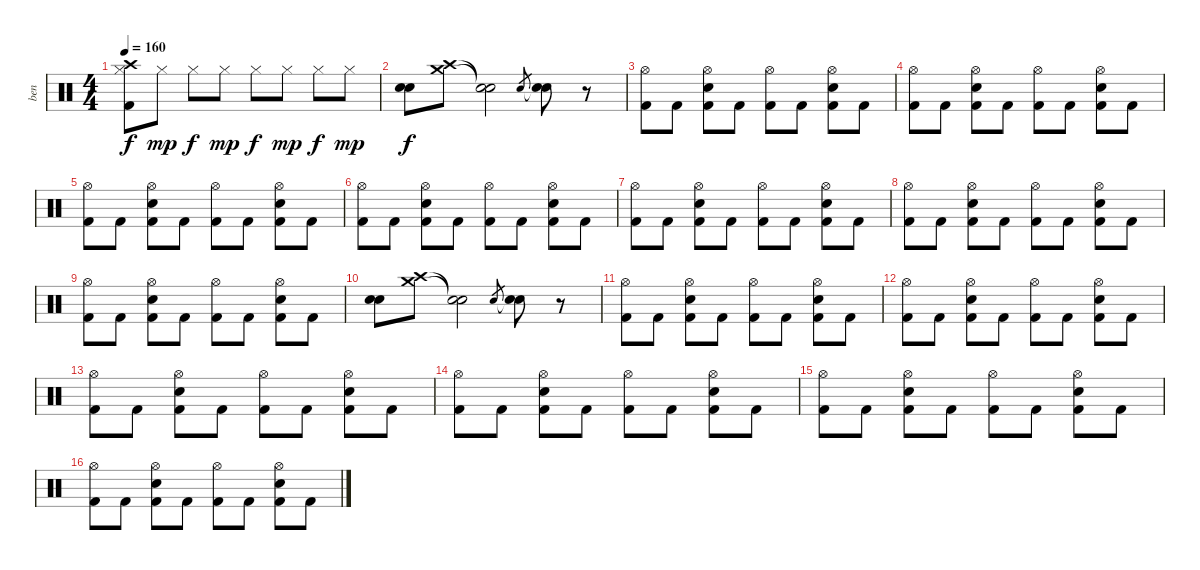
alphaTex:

\track ("ben" "ben") {instrument percussion}
\staff {score}
\articulation defaults
\ts (4 4)
\tempo 160
\clef neutral
\ks c
("Crash high (hit)" "Hi-Hat (closed)" "Kick (hit) 2").8{dy f} "Hi-Hat (closed)".8{dy mp} "Hi-Hat (closed)".8{dy f} "Hi-Hat (closed)".8{dy mp} "Hi-Hat (closed)".8{dy f} "Hi-Hat (closed)".8{dy mp} "Hi-Hat (closed)".8{dy f} "Hi-Hat (closed)".8{dy mp} |
("Electric Snare (hit)" "Snare (hit) 2").8{dy f} ("Crash medium (hit)" "Crash high (hit)").8 ("Snare (hit)"{t} "Snare (hit)"{t}).2 "Electric Snare (hit)".8{gr} ("Snare (hit)"{t} "Electric Snare (hit)").8 r.8 |
("Hi-Hat (open)" "Kick (hit) 2").8 "Kick (hit) 2".8 ("Hi-Hat (open)" "Electric Snare (hit)" "Kick (hit) 2").8 "Kick (hit) 2".8 ("Hi-Hat (open)" "Kick (hit) 2").8 "Kick (hit) 2".8 ("Hi-Hat (open)" "Electric Snare (hit)" "Kick (hit) 2").8 "Kick (hit) 2".8 |
("Hi-Hat (open)" "Kick (hit) 2").8 "Kick (hit) 2".8 ("Hi-Hat (open)" "Electric Snare (hit)" "Kick (hit) 2").8 "Kick (hit) 2".8 ("Hi-Hat (open)" "Kick (hit) 2").8 "Kick (hit) 2".8 ("Hi-Hat (open)" "Electric Snare (hit)" "Kick (hit) 2").8 "Kick (hit) 2".8 |
("Hi-Hat (open)" "Kick (hit) 2").8 "Kick (hit) 2".8 ("Hi-Hat (open)" "Electric Snare (hit)" "Kick (hit) 2").8 "Kick (hit) 2".8 ("Hi-Hat (open)" "Kick (hit) 2").8 "Kick (hit) 2".8 ("Hi-Hat (open)" "Electric Snare (hit)" "Kick (hit) 2").8 "Kick (hit) 2".8 |
("Hi-Hat (open)" "Kick (hit) 2").8 "Kick (hit) 2".8 ("Hi-Hat (open)" "Electric Snare (hit)" "Kick (hit) 2").8 "Kick (hit) 2".8 ("Hi-Hat (open)" "Kick (hit) 2").8 "Kick (hit) 2".8 ("Hi-Hat (open)" "Electric Snare (hit)" "Kick (hit) 2").8 "Kick (hit) 2".8 |
("Hi-Hat (open)" "Kick (hit) 2").8 "Kick (hit) 2".8 ("Hi-Hat (open)" "Electric Snare (hit)" "Kick (hit) 2").8 "Kick (hit) 2".8 ("Hi-Hat (open)" "Kick (hit) 2").8 "Kick (hit) 2".8 ("Hi-Hat (open)" "Electric Snare (hit)" "Kick (hit) 2").8 "Kick (hit) 2".8 |
("Hi-Hat (open)" "Kick (hit) 2").8 "Kick (hit) 2".8 ("Hi-Hat (open)" "Electric Snare (hit)" "Kick (hit) 2").8 "Kick (hit) 2".8 ("Hi-Hat (open)" "Kick (hit) 2").8 "Kick (hit) 2".8 ("Hi-Hat (open)" "Electric Snare (hit)" "Kick (hit) 2").8 "Kick (hit) 2".8 |
("Hi-Hat (open)" "Kick (hit) 2").8 "Kick (hit) 2".8 ("Hi-Hat (open)" "Electric Snare (hit)" "Kick (hit) 2").8 "Kick (hit) 2".8 ("Hi-Hat (open)" "Kick (hit) 2").8 "Kick (hit) 2".8 ("Hi-Hat (open)" "Electric Snare (hit)" "Kick (hit) 2").8 "Kick (hit) 2".8 |
("Electric Snare (hit)" "Snare (hit) 2").8 ("Crash medium (hit)" "Crash high (hit)").8 ("Snare (hit)"{t} "Snare (hit)"{t}).2 "Electric Snare (hit)".8{gr} ("Snare (hit)"{t} "Electric Snare (hit)").8 r.8 |
("Hi-Hat (open)" "Kick (hit) 2").8 "Kick (hit) 2".8 ("Hi-Hat (open)" "Electric Snare (hit)" "Kick (hit) 2").8 "Kick (hit) 2".8 ("Hi-Hat (open)" "Kick (hit) 2").8 "Kick (hit) 2".8 ("Hi-Hat (open)" "Electric Snare (hit)" "Kick (hit) 2").8 "Kick (hit) 2".8 |
("Hi-Hat (open)" "Kick (hit) 2").8 "Kick (hit) 2".8 ("Hi-Hat (open)" "Electric Snare (hit)" "Kick (hit) 2").8 "Kick (hit) 2".8 ("Hi-Hat (open)" "Kick (hit) 2").8 "Kick (hit) 2".8 ("Hi-Hat (open)" "Electric Snare (hit)" "Kick (hit) 2").8 "Kick (hit) 2".8 |
("Hi-Hat (open)" "Kick (hit) 2").8 "Kick (hit) 2".8 ("Hi-Hat (open)" "Electric Snare (hit)" "Kick (hit) 2").8 "Kick (hit) 2".8 ("Hi-Hat (open)" "Kick (hit) 2").8 "Kick (hit) 2".8 ("Hi-Hat (open)" "Electric Snare (hit)" "Kick (hit) 2").8 "Kick (hit) 2".8 |
("Hi-Hat (open)" "Kick (hit) 2").8 "Kick (hit) 2".8 ("Hi-Hat (open)" "Electric Snare (hit)" "Kick (hit) 2").8 "Kick (hit) 2".8 ("Hi-Hat (open)" "Kick (hit) 2").8 "Kick (hit) 2".8 ("Hi-Hat (open)" "Electric Snare (hit)" "Kick (hit) 2").8 "Kick (hit) 2".8 |
("Hi-Hat (open)" "Kick (hit) 2").8 "Kick (hit) 2".8 ("Hi-Hat (open)" "Electric Snare (hit)" "Kick (hit) 2").8 "Kick (hit) 2".8 ("Hi-Hat (open)" "Kick (hit) 2").8 "Kick (hit) 2".8 ("Hi-Hat (open)" "Electric Snare (hit)" "Kick (hit) 2").8 "Kick (hit) 2".8 |
("Hi-Hat (open)" "Kick (hit) 2").8 "Kick (hit) 2".8 ("Hi-Hat (open)" "Electric Snare (hit)" "Kick (hit) 2").8 "Kick (hit) 2".8 ("Hi-Hat (open)" "Kick (hit) 2").8 "Kick (hit) 2".8 ("Hi-Hat (open)" "Electric Snare (hit)" "Kick (hit) 2").8 "Kick (hit) 2".8
